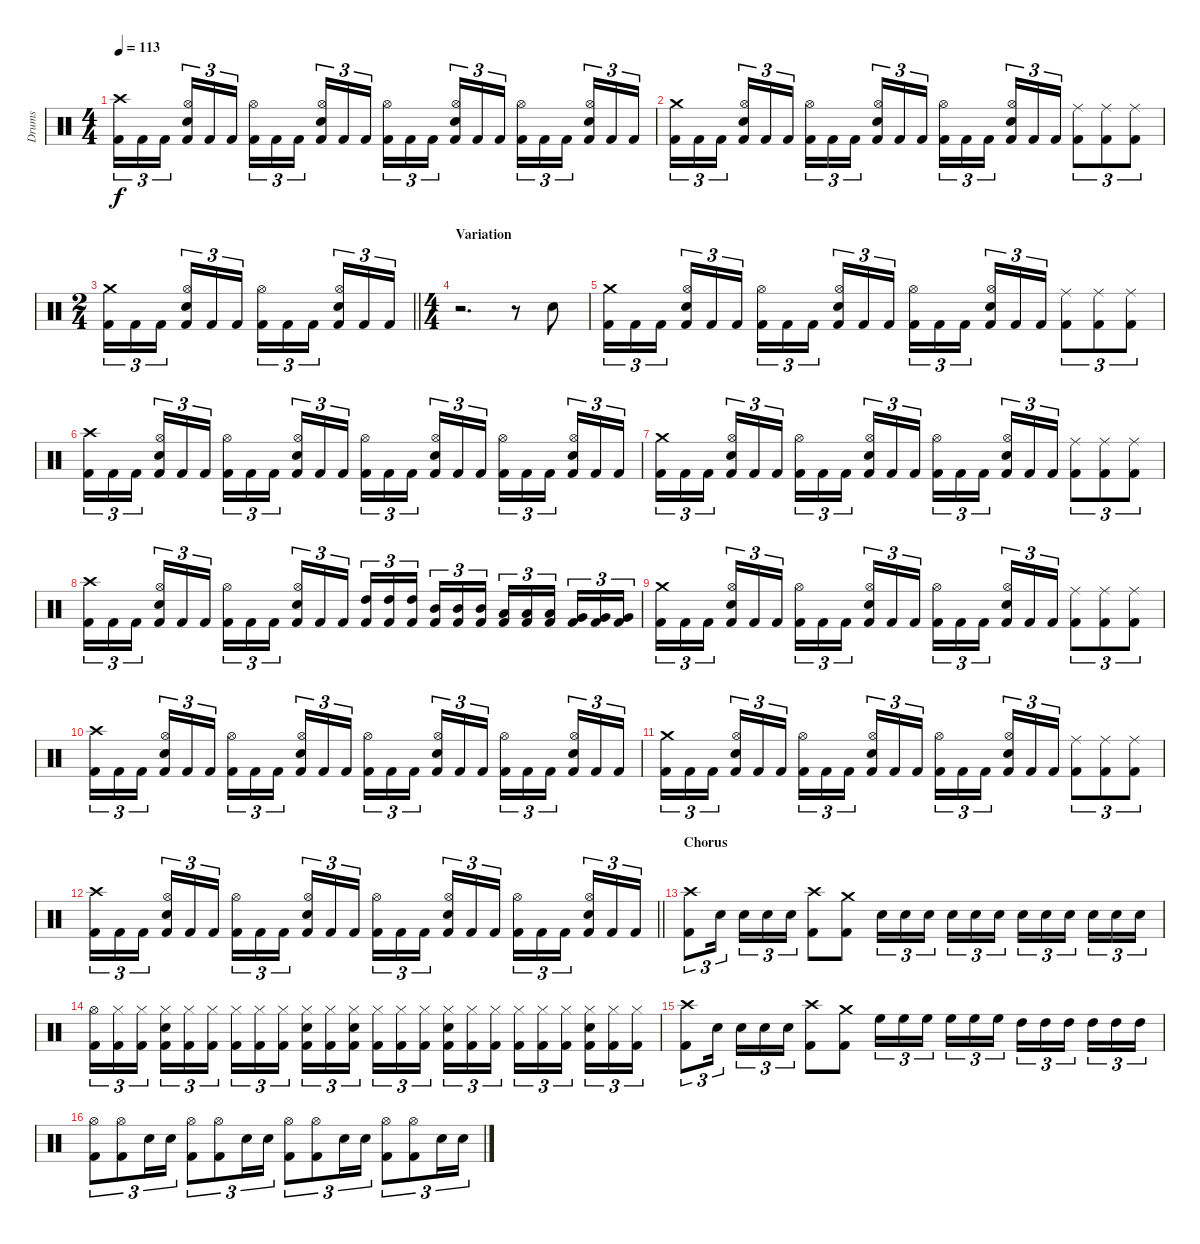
\track ("Drums" "Drums") {instrument percussion}
\staff {score}
\articulation defaults
\ts (4 4)
\tempo 113
\clef neutral
\ks c
("Crash high (hit)" "Kick (hit) 2").16{tu (3 2) dy f} "Kick (hit) 2".16{tu (3 2)} "Kick (hit) 2".16{tu (3 2) beam splitsecondary} ("Hi-Hat (open)" "Snare (hit) 2" "Kick (hit) 2").16{tu (3 2)} "Kick (hit) 2".16{tu (3 2)} "Kick (hit) 2".16{tu (3 2)} ("Hi-Hat (open)" "Kick (hit) 2").16{tu (3 2)} "Kick (hit) 2".16{tu (3 2)} "Kick (hit) 2".16{tu (3 2) beam splitsecondary} ("Hi-Hat (open)" "Snare (hit) 2" "Kick (hit) 2").16{tu (3 2)} "Kick (hit) 2".16{tu (3 2)} "Kick (hit) 2".16{tu (3 2)} ("Hi-Hat (open)" "Kick (hit) 2").16{tu (3 2)} "Kick (hit) 2".16{tu (3 2)} "Kick (hit) 2".16{tu (3 2) beam splitsecondary} ("Hi-Hat (open)" "Snare (hit) 2" "Kick (hit) 2").16{tu (3 2)} "Kick (hit) 2".16{tu (3 2)} "Kick (hit) 2".16{tu (3 2)} ("Hi-Hat (open)" "Kick (hit) 2").16{tu (3 2)} "Kick (hit) 2".16{tu (3 2)} "Kick (hit) 2".16{tu (3 2) beam splitsecondary} ("Hi-Hat (open)" "Snare (hit) 2" "Kick (hit) 2").16{tu (3 2)} "Kick (hit) 2".16{tu (3 2)} "Kick (hit) 2".16{tu (3 2)} |
("Crash medium (hit)" "Kick (hit) 2").16{tu (3 2)} "Kick (hit) 2".16{tu (3 2)} "Kick (hit) 2".16{tu (3 2) beam splitsecondary} ("Hi-Hat (open)" "Snare (hit) 2" "Kick (hit) 2").16{tu (3 2)} "Kick (hit) 2".16{tu (3 2)} "Kick (hit) 2".16{tu (3 2)} ("Hi-Hat (open)" "Kick (hit) 2").16{tu (3 2)} "Kick (hit) 2".16{tu (3 2)} "Kick (hit) 2".16{tu (3 2) beam splitsecondary} ("Hi-Hat (open)" "Snare (hit) 2" "Kick (hit) 2").16{tu (3 2)} "Kick (hit) 2".16{tu (3 2)} "Kick (hit) 2".16{tu (3 2)} ("Hi-Hat (open)" "Kick (hit) 2").16{tu (3 2)} "Kick (hit) 2".16{tu (3 2)} "Kick (hit) 2".16{tu (3 2) beam splitsecondary} ("Hi-Hat (open)" "Snare (hit) 2" "Kick (hit) 2").16{tu (3 2)} "Kick (hit) 2".16{tu (3 2)} "Kick (hit) 2".16{tu (3 2)} ("Ride (middle)" "Kick (hit) 2").8{tu (3 2)} ("Ride (middle)" "Kick (hit) 2").8{tu (3 2)} ("Ride (middle)" "Kick (hit) 2").8{tu (3 2)} |
\ts (2 4)
\barLineRight lightlight
("Crash medium (hit)" "Kick (hit) 2").16{tu (3 2)} "Kick (hit) 2".16{tu (3 2)} "Kick (hit) 2".16{tu (3 2) beam splitsecondary} ("Hi-Hat (open)" "Snare (hit) 2" "Kick (hit) 2").16{tu (3 2)} "Kick (hit) 2".16{tu (3 2)} "Kick (hit) 2".16{tu (3 2)} ("Hi-Hat (open)" "Kick (hit) 2").16{tu (3 2)} "Kick (hit) 2".16{tu (3 2)} "Kick (hit) 2".16{tu (3 2) beam splitsecondary} ("Hi-Hat (open)" "Snare (hit) 2" "Kick (hit) 2").16{tu (3 2)} "Kick (hit) 2".16{tu (3 2)} "Kick (hit) 2".16{tu (3 2)} |
\ts (4 4)
\section ("" "Variation ")
r.2{d} r.8 "Snare (hit) 2".8 |
("Crash medium (hit)" "Kick (hit) 2").16{tu (3 2)} "Kick (hit) 2".16{tu (3 2)} "Kick (hit) 2".16{tu (3 2) beam splitsecondary} ("Hi-Hat (open)" "Snare (hit) 2" "Kick (hit) 2").16{tu (3 2)} "Kick (hit) 2".16{tu (3 2)} "Kick (hit) 2".16{tu (3 2)} ("Hi-Hat (open)" "Kick (hit) 2").16{tu (3 2)} "Kick (hit) 2".16{tu (3 2)} "Kick (hit) 2".16{tu (3 2) beam splitsecondary} ("Hi-Hat (open)" "Snare (hit) 2" "Kick (hit) 2").16{tu (3 2)} "Kick (hit) 2".16{tu (3 2)} "Kick (hit) 2".16{tu (3 2)} ("Hi-Hat (open)" "Kick (hit) 2").16{tu (3 2)} "Kick (hit) 2".16{tu (3 2)} "Kick (hit) 2".16{tu (3 2) beam splitsecondary} ("Hi-Hat (open)" "Snare (hit) 2" "Kick (hit) 2").16{tu (3 2)} "Kick (hit) 2".16{tu (3 2)} "Kick (hit) 2".16{tu (3 2)} ("Ride (middle)" "Kick (hit) 2").8{tu (3 2)} ("Ride (middle)" "Kick (hit) 2").8{tu (3 2)} ("Ride (middle)" "Kick (hit) 2").8{tu (3 2)} |
("Crash high (hit)" "Kick (hit) 2").16{tu (3 2)} "Kick (hit) 2".16{tu (3 2)} "Kick (hit) 2".16{tu (3 2) beam splitsecondary} ("Hi-Hat (open)" "Snare (hit) 2" "Kick (hit) 2").16{tu (3 2)} "Kick (hit) 2".16{tu (3 2)} "Kick (hit) 2".16{tu (3 2)} ("Hi-Hat (open)" "Kick (hit) 2").16{tu (3 2)} "Kick (hit) 2".16{tu (3 2)} "Kick (hit) 2".16{tu (3 2) beam splitsecondary} ("Hi-Hat (open)" "Snare (hit) 2" "Kick (hit) 2").16{tu (3 2)} "Kick (hit) 2".16{tu (3 2)} "Kick (hit) 2".16{tu (3 2)} ("Hi-Hat (open)" "Kick (hit) 2").16{tu (3 2)} "Kick (hit) 2".16{tu (3 2)} "Kick (hit) 2".16{tu (3 2) beam splitsecondary} ("Hi-Hat (open)" "Snare (hit) 2" "Kick (hit) 2").16{tu (3 2)} "Kick (hit) 2".16{tu (3 2)} "Kick (hit) 2".16{tu (3 2)} ("Hi-Hat (open)" "Kick (hit) 2").16{tu (3 2)} "Kick (hit) 2".16{tu (3 2)} "Kick (hit) 2".16{tu (3 2) beam splitsecondary} ("Hi-Hat (open)" "Snare (hit) 2" "Kick (hit) 2").16{tu (3 2)} "Kick (hit) 2".16{tu (3 2)} "Kick (hit) 2".16{tu (3 2)} |
("Crash medium (hit)" "Kick (hit) 2").16{tu (3 2)} "Kick (hit) 2".16{tu (3 2)} "Kick (hit) 2".16{tu (3 2) beam splitsecondary} ("Hi-Hat (open)" "Snare (hit) 2" "Kick (hit) 2").16{tu (3 2)} "Kick (hit) 2".16{tu (3 2)} "Kick (hit) 2".16{tu (3 2)} ("Hi-Hat (open)" "Kick (hit) 2").16{tu (3 2)} "Kick (hit) 2".16{tu (3 2)} "Kick (hit) 2".16{tu (3 2) beam splitsecondary} ("Hi-Hat (open)" "Snare (hit) 2" "Kick (hit) 2").16{tu (3 2)} "Kick (hit) 2".16{tu (3 2)} "Kick (hit) 2".16{tu (3 2)} ("Hi-Hat (open)" "Kick (hit) 2").16{tu (3 2)} "Kick (hit) 2".16{tu (3 2)} "Kick (hit) 2".16{tu (3 2) beam splitsecondary} ("Hi-Hat (open)" "Snare (hit) 2" "Kick (hit) 2").16{tu (3 2)} "Kick (hit) 2".16{tu (3 2)} "Kick (hit) 2".16{tu (3 2)} ("Ride (middle)" "Kick (hit) 2").8{tu (3 2)} ("Ride (middle)" "Kick (hit) 2").8{tu (3 2)} ("Ride (middle)" "Kick (hit) 2").8{tu (3 2)} |
("Crash high (hit)" "Kick (hit) 2").16{tu (3 2)} "Kick (hit) 2".16{tu (3 2)} "Kick (hit) 2".16{tu (3 2) beam splitsecondary} ("Hi-Hat (open)" "Snare (hit) 2" "Kick (hit) 2").16{tu (3 2)} "Kick (hit) 2".16{tu (3 2)} "Kick (hit) 2".16{tu (3 2)} ("Hi-Hat (open)" "Kick (hit) 2").16{tu (3 2)} "Kick (hit) 2".16{tu (3 2)} "Kick (hit) 2".16{tu (3 2) beam splitsecondary} ("Hi-Hat (open)" "Snare (hit) 2" "Kick (hit) 2").16{tu (3 2)} "Kick (hit) 2".16{tu (3 2)} "Kick (hit) 2".16{tu (3 2)} ("High Tom (hit)" "Kick (hit) 2").16{tu (3 2)} ("High Tom (hit)" "Kick (hit) 2").16{tu (3 2)} ("High Tom (hit)" "Kick (hit) 2").16{tu (3 2) beam splitsecondary} ("Mid Tom (hit)" "Kick (hit) 2").16{tu (3 2)} ("Mid Tom (hit)" "Kick (hit) 2").16{tu (3 2)} ("Mid Tom (hit)" "Kick (hit) 2").16{tu (3 2)} ("Low Tom (hit)" "Kick (hit) 2").16{tu (3 2)} ("Low Tom (hit)" "Kick (hit) 2").16{tu (3 2)} ("Low Tom (hit)" "Kick (hit) 2").16{tu (3 2) beam splitsecondary} ("Very Low Tom (hit)" "Kick (hit) 2").16{tu (3 2)} ("Very Low Tom (hit)" "Kick (hit) 2").16{tu (3 2)} ("Very Low Tom (hit)" "Kick (hit) 2").16{tu (3 2)} |
("Crash medium (hit)" "Kick (hit) 2").16{tu (3 2)} "Kick (hit) 2".16{tu (3 2)} "Kick (hit) 2".16{tu (3 2) beam splitsecondary} ("Hi-Hat (open)" "Snare (hit) 2" "Kick (hit) 2").16{tu (3 2)} "Kick (hit) 2".16{tu (3 2)} "Kick (hit) 2".16{tu (3 2)} ("Hi-Hat (open)" "Kick (hit) 2").16{tu (3 2)} "Kick (hit) 2".16{tu (3 2)} "Kick (hit) 2".16{tu (3 2) beam splitsecondary} ("Hi-Hat (open)" "Snare (hit) 2" "Kick (hit) 2").16{tu (3 2)} "Kick (hit) 2".16{tu (3 2)} "Kick (hit) 2".16{tu (3 2)} ("Hi-Hat (open)" "Kick (hit) 2").16{tu (3 2)} "Kick (hit) 2".16{tu (3 2)} "Kick (hit) 2".16{tu (3 2) beam splitsecondary} ("Hi-Hat (open)" "Snare (hit) 2" "Kick (hit) 2").16{tu (3 2)} "Kick (hit) 2".16{tu (3 2)} "Kick (hit) 2".16{tu (3 2)} ("Ride (middle)" "Kick (hit) 2").8{tu (3 2)} ("Ride (middle)" "Kick (hit) 2").8{tu (3 2)} ("Ride (middle)" "Kick (hit) 2").8{tu (3 2)} |
("Crash high (hit)" "Kick (hit) 2").16{tu (3 2)} "Kick (hit) 2".16{tu (3 2)} "Kick (hit) 2".16{tu (3 2) beam splitsecondary} ("Hi-Hat (open)" "Snare (hit) 2" "Kick (hit) 2").16{tu (3 2)} "Kick (hit) 2".16{tu (3 2)} "Kick (hit) 2".16{tu (3 2)} ("Hi-Hat (open)" "Kick (hit) 2").16{tu (3 2)} "Kick (hit) 2".16{tu (3 2)} "Kick (hit) 2".16{tu (3 2) beam splitsecondary} ("Hi-Hat (open)" "Snare (hit) 2" "Kick (hit) 2").16{tu (3 2)} "Kick (hit) 2".16{tu (3 2)} "Kick (hit) 2".16{tu (3 2)} ("Hi-Hat (open)" "Kick (hit) 2").16{tu (3 2)} "Kick (hit) 2".16{tu (3 2)} "Kick (hit) 2".16{tu (3 2) beam splitsecondary} ("Hi-Hat (open)" "Snare (hit) 2" "Kick (hit) 2").16{tu (3 2)} "Kick (hit) 2".16{tu (3 2)} "Kick (hit) 2".16{tu (3 2)} ("Hi-Hat (open)" "Kick (hit) 2").16{tu (3 2)} "Kick (hit) 2".16{tu (3 2)} "Kick (hit) 2".16{tu (3 2) beam splitsecondary} ("Hi-Hat (open)" "Snare (hit) 2" "Kick (hit) 2").16{tu (3 2)} "Kick (hit) 2".16{tu (3 2)} "Kick (hit) 2".16{tu (3 2)} |
("Crash medium (hit)" "Kick (hit) 2").16{tu (3 2)} "Kick (hit) 2".16{tu (3 2)} "Kick (hit) 2".16{tu (3 2) beam splitsecondary} ("Hi-Hat (open)" "Snare (hit) 2" "Kick (hit) 2").16{tu (3 2)} "Kick (hit) 2".16{tu (3 2)} "Kick (hit) 2".16{tu (3 2)} ("Hi-Hat (open)" "Kick (hit) 2").16{tu (3 2)} "Kick (hit) 2".16{tu (3 2)} "Kick (hit) 2".16{tu (3 2) beam splitsecondary} ("Hi-Hat (open)" "Snare (hit) 2" "Kick (hit) 2").16{tu (3 2)} "Kick (hit) 2".16{tu (3 2)} "Kick (hit) 2".16{tu (3 2)} ("Hi-Hat (open)" "Kick (hit) 2").16{tu (3 2)} "Kick (hit) 2".16{tu (3 2)} "Kick (hit) 2".16{tu (3 2) beam splitsecondary} ("Hi-Hat (open)" "Snare (hit) 2" "Kick (hit) 2").16{tu (3 2)} "Kick (hit) 2".16{tu (3 2)} "Kick (hit) 2".16{tu (3 2)} ("Ride (middle)" "Kick (hit) 2").8{tu (3 2)} ("Ride (middle)" "Kick (hit) 2").8{tu (3 2)} ("Ride (middle)" "Kick (hit) 2").8{tu (3 2)} |
\barLineRight lightlight
("Crash high (hit)" "Kick (hit) 2").16{tu (3 2)} "Kick (hit) 2".16{tu (3 2)} "Kick (hit) 2".16{tu (3 2) beam splitsecondary} ("Hi-Hat (open)" "Snare (hit) 2" "Kick (hit) 2").16{tu (3 2)} "Kick (hit) 2".16{tu (3 2)} "Kick (hit) 2".16{tu (3 2)} ("Hi-Hat (open)" "Kick (hit) 2").16{tu (3 2)} "Kick (hit) 2".16{tu (3 2)} "Kick (hit) 2".16{tu (3 2) beam splitsecondary} ("Hi-Hat (open)" "Snare (hit) 2" "Kick (hit) 2").16{tu (3 2)} "Kick (hit) 2".16{tu (3 2)} "Kick (hit) 2".16{tu (3 2)} ("Hi-Hat (open)" "Kick (hit) 2").16{tu (3 2)} "Kick (hit) 2".16{tu (3 2)} "Kick (hit) 2".16{tu (3 2) beam splitsecondary} ("Hi-Hat (open)" "Snare (hit) 2" "Kick (hit) 2").16{tu (3 2)} "Kick (hit) 2".16{tu (3 2)} "Kick (hit) 2".16{tu (3 2)} ("Hi-Hat (open)" "Kick (hit) 2").16{tu (3 2)} "Kick (hit) 2".16{tu (3 2)} "Kick (hit) 2".16{tu (3 2) beam splitsecondary} ("Hi-Hat (open)" "Snare (hit) 2" "Kick (hit) 2").16{tu (3 2)} "Kick (hit) 2".16{tu (3 2)} "Kick (hit) 2".16{tu (3 2)} |
\section ("" "Chorus")
("Crash high (hit)" "Kick (hit) 2").8{tu (3 2)} "Snare (hit) 2".16{tu (3 2) beam splitsecondary} "Snare (hit) 2".16{tu (3 2)} "Snare (hit) 2".16{tu (3 2)} "Snare (hit) 2".16{tu (3 2)} ("Crash high (hit)" "Kick (hit) 2").8 ("Crash medium (hit)" "Kick (hit) 2").8 "Snare (hit) 2".16{tu (3 2)} "Snare (hit) 2".16{tu (3 2)} "Snare (hit) 2".16{tu (3 2) beam splitsecondary} "Snare (hit) 2".16{tu (3 2)} "Snare (hit) 2".16{tu (3 2)} "Snare (hit) 2".16{tu (3 2)} "Snare (hit) 2".16{tu (3 2)} "Snare (hit) 2".16{tu (3 2)} "Snare (hit) 2".16{tu (3 2) beam splitsecondary} "Snare (hit) 2".16{tu (3 2)} "Snare (hit) 2".16{tu (3 2)} "Snare (hit) 2".16{tu (3 2)} |
("Hi-Hat (open)" "Kick (hit) 2").16{tu (3 2)} ("Hi-Hat (closed)" "Kick (hit) 2").16{tu (3 2)} ("Hi-Hat (closed)" "Kick (hit) 2").16{tu (3 2) beam splitsecondary} ("Snare (hit) 2" "Hi-Hat (closed)" "Kick (hit) 2").16{tu (3 2)} ("Hi-Hat (closed)" "Kick (hit) 2").16{tu (3 2)} ("Hi-Hat (closed)" "Kick (hit) 2").16{tu (3 2)} ("Hi-Hat (closed)" "Kick (hit) 2").16{tu (3 2)} ("Hi-Hat (closed)" "Kick (hit) 2").16{tu (3 2)} ("Hi-Hat (closed)" "Kick (hit) 2").16{tu (3 2) beam splitsecondary} ("Snare (hit) 2" "Hi-Hat (closed)" "Kick (hit) 2").16{tu (3 2)} ("Hi-Hat (closed)" "Kick (hit) 2").16{tu (3 2)} ("Snare (hit) 2" "Hi-Hat (closed)" "Kick (hit) 2").16{tu (3 2)} ("Hi-Hat (closed)" "Kick (hit) 2").16{tu (3 2)} ("Hi-Hat (closed)" "Kick (hit) 2").16{tu (3 2)} ("Hi-Hat (closed)" "Kick (hit) 2").16{tu (3 2) beam splitsecondary} ("Snare (hit) 2" "Hi-Hat (closed)" "Kick (hit) 2").16{tu (3 2)} ("Hi-Hat (closed)" "Kick (hit) 2").16{tu (3 2)} ("Hi-Hat (closed)" "Kick (hit) 2").16{tu (3 2)} ("Hi-Hat (closed)" "Kick (hit) 2").16{tu (3 2)} ("Hi-Hat (closed)" "Kick (hit) 2").16{tu (3 2)} ("Hi-Hat (closed)" "Kick (hit) 2").16{tu (3 2) beam splitsecondary} ("Snare (hit) 2" "Hi-Hat (closed)" "Kick (hit) 2").16{tu (3 2)} ("Hi-Hat (closed)" "Kick (hit) 2").16{tu (3 2)} ("Hi-Hat (closed)" "Kick (hit) 2").16{tu (3 2)} |
("Crash high (hit)" "Kick (hit) 2").8{tu (3 2)} "Snare (hit) 2".16{tu (3 2) beam splitsecondary} "Snare (hit) 2".16{tu (3 2)} "Snare (hit) 2".16{tu (3 2)} "Snare (hit) 2".16{tu (3 2)} ("Crash high (hit)" "Kick (hit) 2").8 ("Crash medium (hit)" "Kick (hit) 2").8 "High Floor Tom (hit)".16{tu (3 2)} "High Floor Tom (hit)".16{tu (3 2)} "High Floor Tom (hit)".16{tu (3 2) beam splitsecondary} "High Floor Tom (hit)".16{tu (3 2)} "High Floor Tom (hit)".16{tu (3 2)} "High Floor Tom (hit)".16{tu (3 2)} "High Tom (hit)".16{tu (3 2)} "High Tom (hit)".16{tu (3 2)} "High Tom (hit)".16{tu (3 2) beam splitsecondary} "High Tom (hit)".16{tu (3 2)} "High Tom (hit)".16{tu (3 2)} "High Tom (hit)".16{tu (3 2)} |
("Hi-Hat (open)" "Kick (hit) 2").8{tu (3 2)} ("Hi-Hat (open)" "Kick (hit) 2").8{tu (3 2)} "Snare (hit) 2".16{tu (3 2)} "Snare (hit) 2".16{tu (3 2)} ("Hi-Hat (open)" "Kick (hit) 2").8{tu (3 2)} ("Hi-Hat (open)" "Kick (hit) 2").8{tu (3 2)} "Snare (hit) 2".16{tu (3 2)} "Snare (hit) 2".16{tu (3 2)} ("Hi-Hat (open)" "Kick (hit) 2").8{tu (3 2)} ("Hi-Hat (open)" "Kick (hit) 2").8{tu (3 2)} "Snare (hit) 2".16{tu (3 2)} "Snare (hit) 2".16{tu (3 2)} ("Hi-Hat (open)" "Kick (hit) 2").8{tu (3 2)} ("Hi-Hat (open)" "Kick (hit) 2").8{tu (3 2)} "Snare (hit) 2".16{tu (3 2)} "Snare (hit) 2".16{tu (3 2)}
